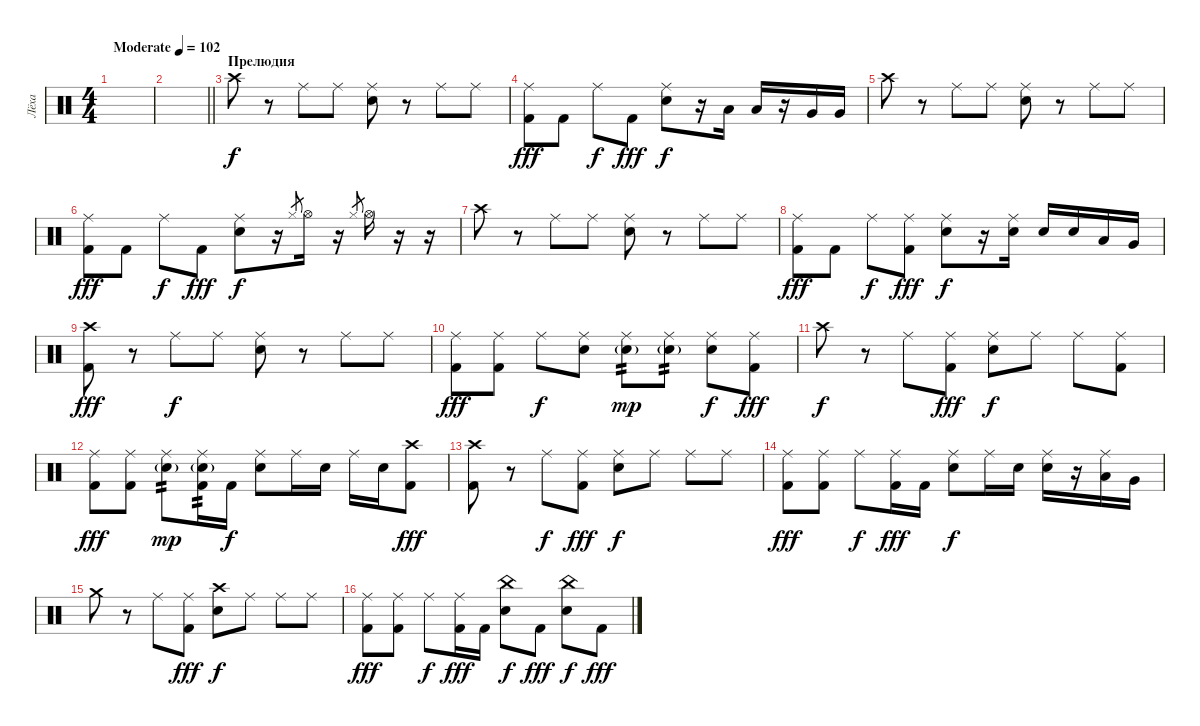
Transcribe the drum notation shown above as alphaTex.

\track ("Лёха" "Лёха") {instrument percussion}
\staff {score}
\articulation defaults
\ts (4 4)
\tempo (102 "Moderate")
\clef neutral
\ks c
|
\barLineRight lightlight
|
\section ("" "Прелюдия")
"Crash high (hit)".8 r.8 "Ride (middle)".8 "Ride (middle)".8 ("Ride (middle)" "Electric Snare (hit)").8 r.8 "Ride (middle)".8 "Ride (middle)".8 |
("Ride (middle)" "Kick (hit) 2").8{dy fff} "Kick (hit) 2".8 "Ride (middle)".8{dy f} "Kick (hit) 2".8{dy fff} ("Ride (middle)" "Electric Snare (hit)").8{dy f} r.16 "Low Tom (hit)".16 "Low Tom (hit)".16 r.16 "Very Low Tom (hit)".16 "Very Low Tom (hit)".16 |
"Crash high (hit)".8 r.8 "Ride (middle)".8 "Ride (middle)".8 ("Ride (middle)" "Electric Snare (hit)").8 r.8 "Ride (middle)".8 "Ride (middle)".8 |
("Ride (middle)" "Kick (hit) 2").8{dy fff} "Kick (hit) 2".8 "Ride (middle)".8{dy f} "Kick (hit) 2".8{dy fff} ("Ride (middle)" "Electric Snare (hit)").8{dy f} r.16 "Hi-Hat (closed)".8{gr} "Hi-Hat (open)".16 r.16{volume 0} "Hi-Hat (closed)".8{gr} "Hi-Hat (open)".16{volume 12} r.16{volume 0} r.16 |
"Crash high (hit)".8{volume 12} r.8 "Ride (middle)".8 "Ride (middle)".8 ("Ride (middle)" "Electric Snare (hit)").8 r.8 "Ride (middle)".8 "Ride (middle)".8 |
("Ride (middle)" "Kick (hit) 2").8{dy fff} "Kick (hit) 2".8 "Ride (middle)".8{dy f} ("Ride (middle)" "Kick (hit) 2").8{dy fff} ("Ride (middle)" "Electric Snare (hit)").8{dy f} r.16 ("Ride (middle)" "Electric Snare (hit)").16 "Electric Snare (hit)".16 "Electric Snare (hit)".16 "Low Tom (hit)".16 "Very Low Tom (hit)".16 |
("Crash high (hit)" "Kick (hit) 2").8{dy fff} r.8 "Ride (middle)".8{dy f} "Ride (middle)".8 ("Ride (middle)" "Electric Snare (hit)").8 r.8 "Ride (middle)".8 "Ride (middle)".8 |
("Ride (middle)" "Kick (hit) 2").8{dy fff} ("Ride (middle)" "Kick (hit) 2").8 "Ride (middle)".8{dy f} ("Ride (middle)" "Electric Snare (hit)").8 ("Ride (middle)" "Electric Snare (hit)"{g}).8{tp 2 dy mp} ("Ride (middle)" "Electric Snare (hit)"{g}).8{tp 2} ("Ride (middle)" "Electric Snare (hit)").8{dy f} ("Ride (middle)" "Kick (hit) 2").8{dy fff} |
"Crash high (hit)".8{dy f} r.8 "Ride (middle)".8 ("Ride (middle)" "Kick (hit) 2").8{dy fff} ("Ride (middle)" "Electric Snare (hit)").8{dy f} "Ride (middle)".8 "Ride (middle)".8 ("Ride (middle)" "Kick (hit) 2").8 |
("Ride (middle)" "Kick (hit) 2").8{dy fff} ("Ride (middle)" "Kick (hit) 2").8 ("Ride (middle)" "Electric Snare (hit)"{g}).8{tp 2 dy mp} ("Ride (middle)" "Electric Snare (hit)"{g} "Kick (hit) 2").16{tp 2} "Kick (hit) 2".16{dy f} ("Ride (middle)" "Electric Snare (hit)").8 "Ride (middle)".16 "Electric Snare (hit)".16 "Ride (middle)".16 "Electric Snare (hit)".16 ("Crash high (hit)" "Kick (hit) 2").8{dy fff} |
("Crash high (hit)" "Kick (hit) 2").8 r.8 "Ride (middle)".8{dy f} ("Ride (middle)" "Kick (hit) 2").8{dy fff} ("Ride (middle)" "Electric Snare (hit)").8{dy f} "Ride (middle)".8 "Ride (middle)".8 "Ride (middle)".8 |
("Ride (middle)" "Kick (hit) 2").8{dy fff} ("Ride (middle)" "Kick (hit) 2").8 "Ride (middle)".8{dy f} ("Ride (middle)" "Kick (hit) 2").16{dy fff} "Kick (hit) 2".16 ("Ride (middle)" "Electric Snare (hit)").8{dy f} "Ride (middle)".16 "Electric Snare (hit)".16 ("Ride (middle)" "Electric Snare (hit)").16 r.16 ("Ride (middle)" "Low Tom (hit)").16 "Very Low Tom (hit)".16 |
"Crash medium (hit)".8 r.8 "Ride (middle)".8 ("Ride (middle)" "Kick (hit) 2").8{dy fff} ("Crash high (hit)" "Electric Snare (hit)").8{dy f} "Ride (middle)".8 "Ride (middle)".8 "Ride (middle)".8 |
("Ride (middle)" "Kick (hit) 2").8{dy fff} ("Ride (middle)" "Kick (hit) 2").8 "Ride (middle)".8{dy f} ("Ride (middle)" "Kick (hit) 2").16{dy fff} "Kick (hit) 2".16 ("China (hit)" "Electric Snare (hit)").8{dy f} "Kick (hit) 2".8{dy fff} ("China (hit)" "Electric Snare (hit)").8{dy f} "Kick (hit) 2".8{dy fff}
